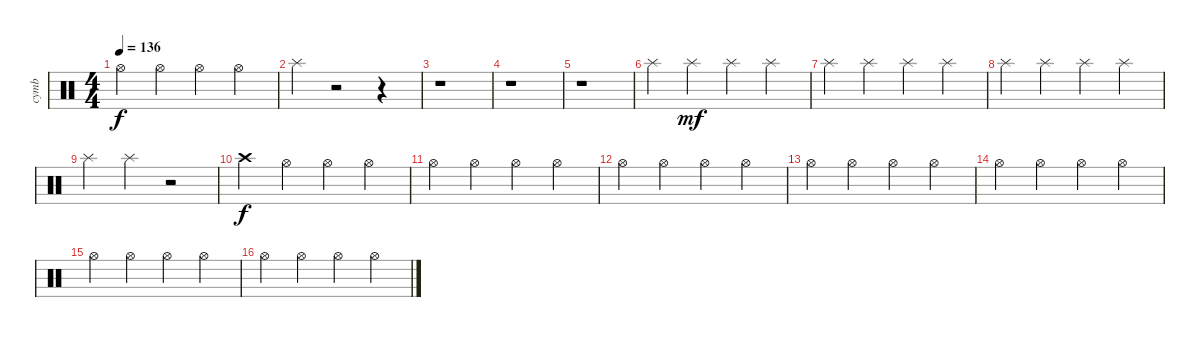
\track ("cymb" "cymb") {instrument percussion}
\staff {score}
\articulation defaults
\ts (4 4)
\tempo 136
\clef neutral
\ks c "Hi-Hat (open)".4{dy f} "Hi-Hat (open)".4 "Hi-Hat (open)".4 "Hi-Hat (open)".4
|
"Splash (hit)".4 r.2 r.4 |
r.1 |
r.1 |
r.1 |
"Splash (hit)".4 "Splash (hit)".4{dy mf} "Splash (hit)".4 "Splash (hit)".4 |
"Splash (hit)".4 "Splash (hit)".4 "Splash (hit)".4 "Splash (hit)".4 |
"Splash (hit)".4 "Splash (hit)".4 "Splash (hit)".4 "Splash (hit)".4 |
"Splash (hit)".4 "Splash (hit)".4 r.2 |
"Crash high (hit)".4{dy f} "Hi-Hat (open)".4 "Hi-Hat (open)".4 "Hi-Hat (open)".4 |
"Hi-Hat (open)".4 "Hi-Hat (open)".4 "Hi-Hat (open)".4 "Hi-Hat (open)".4 |
"Hi-Hat (open)".4 "Hi-Hat (open)".4 "Hi-Hat (open)".4 "Hi-Hat (open)".4 |
"Hi-Hat (open)".4 "Hi-Hat (open)".4 "Hi-Hat (open)".4 "Hi-Hat (open)".4 |
"Hi-Hat (open)".4 "Hi-Hat (open)".4 "Hi-Hat (open)".4 "Hi-Hat (open)".4 |
"Hi-Hat (open)".4 "Hi-Hat (open)".4 "Hi-Hat (open)".4 "Hi-Hat (open)".4 |
"Hi-Hat (open)".4 "Hi-Hat (open)".4 "Hi-Hat (open)".4 "Hi-Hat (open)".4
